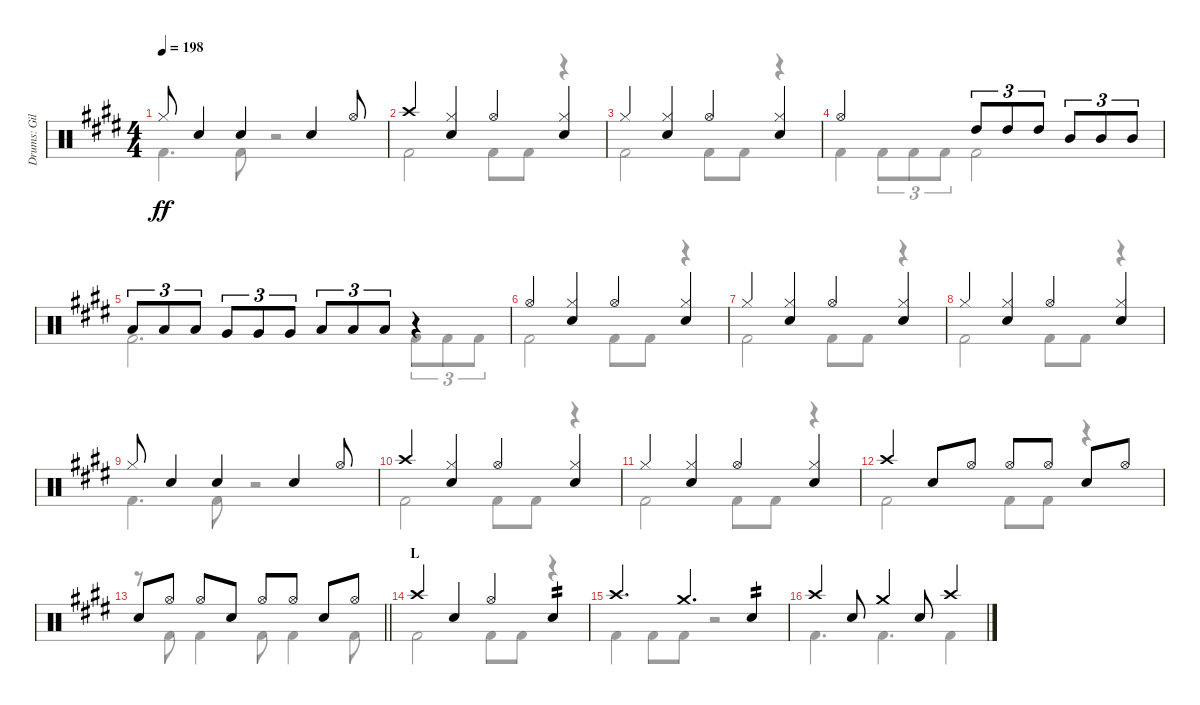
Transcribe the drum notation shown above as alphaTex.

\track ("Drums: Gil" "Drums: Gil") {instrument percussion}
\staff {score}
\articulation defaults
\voice
\ts (4 4)
\tempo 198
\clef neutral
\ks e "Hi-Hat (closed)".8{dy ff} "Snare (hit) 2".4 "Snare (hit) 2".4 "Snare (hit) 2".4 "Hi-Hat (open)".8
|
"Crash high (hit)".4 ("Hi-Hat (closed)" "Snare (hit) 2").4{beam merge} "Hi-Hat (open)".4 ("Hi-Hat (closed)" "Snare (hit) 2").4 |
"Hi-Hat (closed)".4 ("Hi-Hat (closed)" "Snare (hit) 2").4{beam merge} "Hi-Hat (open)".4 ("Hi-Hat (closed)" "Snare (hit) 2").4 |
"Hi-Hat (open)".2 "High Tom (hit)".8{tu (3 2)} "High Tom (hit)".8{tu (3 2)} "High Tom (hit)".8{tu (3 2)} "Mid Tom (hit)".8{tu (3 2)} "Mid Tom (hit)".8{tu (3 2)} "Mid Tom (hit)".8{tu (3 2)} |
"Low Tom (hit)".8{tu (3 2)} "Low Tom (hit)".8{tu (3 2)} "Low Tom (hit)".8{tu (3 2)} "Very Low Tom (hit)".8{tu (3 2)} "Very Low Tom (hit)".8{tu (3 2)} "Very Low Tom (hit)".8{tu (3 2)} "Low Floor Tom (hit)".8{tu (3 2)} "Low Floor Tom (hit)".8{tu (3 2)} "Low Floor Tom (hit)".8{tu (3 2)} r.4 |
"Hi-Hat (open)".4 ("Hi-Hat (closed)" "Snare (hit) 2").4{beam merge} "Hi-Hat (open)".4 ("Hi-Hat (closed)" "Snare (hit) 2").4 |
"Hi-Hat (closed)".4 ("Hi-Hat (closed)" "Snare (hit) 2").4{beam merge} "Hi-Hat (open)".4 ("Hi-Hat (closed)" "Snare (hit) 2").4 |
"Hi-Hat (closed)".4 ("Hi-Hat (closed)" "Snare (hit) 2").4{beam merge} "Hi-Hat (open)".4 ("Hi-Hat (closed)" "Snare (hit) 2").4 |
"Hi-Hat (closed)".8 "Snare (hit) 2".4 "Snare (hit) 2".4 "Snare (hit) 2".4 "Hi-Hat (open)".8 |
"Crash high (hit)".4 ("Hi-Hat (closed)" "Snare (hit) 2").4{beam merge} "Hi-Hat (open)".4 ("Hi-Hat (closed)" "Snare (hit) 2").4 |
"Hi-Hat (closed)".4 ("Hi-Hat (closed)" "Snare (hit) 2").4{beam merge} "Hi-Hat (open)".4 ("Hi-Hat (closed)" "Snare (hit) 2").4 |
"Crash high (hit)".4 "Snare (hit) 2".8 "Hi-Hat (open)".8 "Hi-Hat (open)".8 "Hi-Hat (open)".8 "Snare (hit) 2".8 "Hi-Hat (open)".8 |
\barLineRight lightlight "Snare (hit) 2".8 "Hi-Hat (open)".8 "Hi-Hat (open)".8 "Snare (hit) 2".8 "Hi-Hat (open)".8 "Hi-Hat (open)".8 "Snare (hit) 2".8 "Hi-Hat (open)".8
|
\section ("" "L")
"Crash high (hit)".4 "Snare (hit) 2".4{beam merge} "Hi-Hat (open)".4 "Electric Snare (hit)".4{tp 2} |
"Crash high (hit)".4{d} "Crash medium (hit)".4{d} "Snare (hit) 2".4{tp 2} |
"Crash high (hit)".4 "Snare (hit) 2".8 "Crash medium (hit)".4 "Snare (hit) 2".8 "Crash high (hit)".4
\voice
\clef neutral
\ottava regular
\simile none
\ks e "Kick (hit) 2".4{d dy ff} "Kick (hit) 2".8
r.2 |
"Kick (hit) 2".2 "Kick (hit) 2".8 "Kick (hit) 2".8 r.4 |
"Kick (hit) 2".2 "Kick (hit) 2".8 "Kick (hit) 2".8 r.4 |
"Kick (hit) 2".4 "Kick (hit) 2".8{tu (3 2)} "Kick (hit) 2".8{tu (3 2)} "Kick (hit) 2".8{tu (3 2)} "Kick (hit) 2".2 |
"Kick (hit) 2".2{d} "Kick (hit) 2".8{tu (3 2)} "Kick (hit) 2".8{tu (3 2)} "Kick (hit) 2".8{tu (3 2)} |
"Kick (hit) 2".2 "Kick (hit) 2".8 "Kick (hit) 2".8 r.4 |
"Kick (hit) 2".2 "Kick (hit) 2".8 "Kick (hit) 2".8 r.4 |
"Kick (hit) 2".2 "Kick (hit) 2".8 "Kick (hit) 2".8 r.4 |
"Kick (hit) 2".4{d} "Kick (hit) 2".8 r.2 |
"Kick (hit) 2".2 "Kick (hit) 2".8 "Kick (hit) 2".8 r.4 |
"Kick (hit) 2".2 "Kick (hit) 2".8 "Kick (hit) 2".8 r.4 |
"Kick (hit) 2".2 "Kick (hit) 2".8 "Kick (hit) 2".8 r.4 |
\barLineRight lightlight
r.8 "Kick (hit) 2".8 "Kick (hit) 2".4 "Kick (hit) 2".8 "Kick (hit) 2".4 "Kick (hit) 2".8 |
"Kick (hit) 2".2 "Kick (hit) 2".8 "Kick (hit) 2".8 r.4 |
"Kick (hit) 2".4 "Kick (hit) 2".8 "Kick (hit) 2".8 r.2 |
"Kick (hit) 2".4{d} "Kick (hit) 2".4{d} "Kick (hit) 2".4
